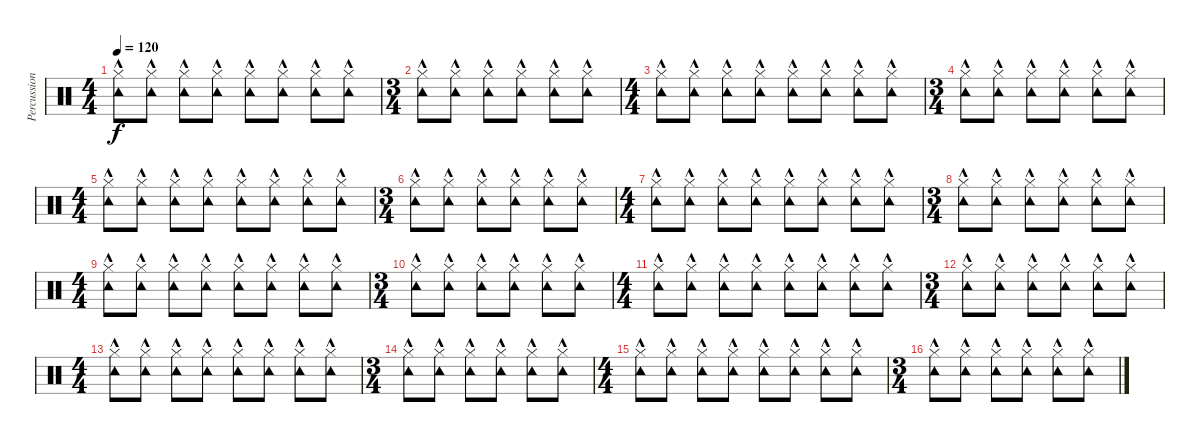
\track ("Percussion" "Percussion") {instrument percussion}
\staff {score}
\articulation defaults
\ts (4 4)
\tempo 120
\clef neutral
\ks c
("Tambourine (hit)"{hac} "Hi-Hat (closed)").8{dy f} ("Tambourine (hit)"{hac} "Hi-Hat (closed)").8 ("Tambourine (hit)"{hac} "Hi-Hat (closed)").8 ("Tambourine (hit)"{hac} "Hi-Hat (closed)").8 ("Tambourine (hit)"{hac} "Hi-Hat (closed)").8 ("Tambourine (hit)"{hac} "Hi-Hat (closed)").8 ("Tambourine (hit)"{hac} "Hi-Hat (closed)").8 ("Tambourine (hit)"{hac} "Hi-Hat (closed)").8 |
\ts (3 4)
("Tambourine (hit)"{hac} "Hi-Hat (closed)").8 ("Tambourine (hit)"{hac} "Hi-Hat (closed)").8 ("Tambourine (hit)"{hac} "Hi-Hat (closed)").8 ("Tambourine (hit)"{hac} "Hi-Hat (closed)").8 ("Tambourine (hit)"{hac} "Hi-Hat (closed)").8 ("Tambourine (hit)"{hac} "Hi-Hat (closed)").8 |
\ts (4 4)
("Tambourine (hit)"{hac} "Hi-Hat (closed)").8 ("Tambourine (hit)"{hac} "Hi-Hat (closed)").8 ("Tambourine (hit)"{hac} "Hi-Hat (closed)").8 ("Tambourine (hit)"{hac} "Hi-Hat (closed)").8 ("Tambourine (hit)"{hac} "Hi-Hat (closed)").8 ("Tambourine (hit)"{hac} "Hi-Hat (closed)").8 ("Tambourine (hit)"{hac} "Hi-Hat (closed)").8 ("Tambourine (hit)"{hac} "Hi-Hat (closed)").8 |
\ts (3 4)
("Tambourine (hit)"{hac} "Hi-Hat (closed)").8 ("Tambourine (hit)"{hac} "Hi-Hat (closed)").8 ("Tambourine (hit)"{hac} "Hi-Hat (closed)").8 ("Tambourine (hit)"{hac} "Hi-Hat (closed)").8 ("Tambourine (hit)"{hac} "Hi-Hat (closed)").8 ("Tambourine (hit)"{hac} "Hi-Hat (closed)").8 |
\ts (4 4)
("Tambourine (hit)"{hac} "Hi-Hat (closed)").8 ("Tambourine (hit)"{hac} "Hi-Hat (closed)").8 ("Tambourine (hit)"{hac} "Hi-Hat (closed)").8 ("Tambourine (hit)"{hac} "Hi-Hat (closed)").8 ("Tambourine (hit)"{hac} "Hi-Hat (closed)").8 ("Tambourine (hit)"{hac} "Hi-Hat (closed)").8 ("Tambourine (hit)"{hac} "Hi-Hat (closed)").8 ("Tambourine (hit)"{hac} "Hi-Hat (closed)").8 |
\ts (3 4)
("Tambourine (hit)"{hac} "Hi-Hat (closed)").8 ("Tambourine (hit)"{hac} "Hi-Hat (closed)").8 ("Tambourine (hit)"{hac} "Hi-Hat (closed)").8 ("Tambourine (hit)"{hac} "Hi-Hat (closed)").8 ("Tambourine (hit)"{hac} "Hi-Hat (closed)").8 ("Tambourine (hit)"{hac} "Hi-Hat (closed)").8 |
\ts (4 4)
("Tambourine (hit)"{hac} "Hi-Hat (closed)").8 ("Tambourine (hit)"{hac} "Hi-Hat (closed)").8 ("Tambourine (hit)"{hac} "Hi-Hat (closed)").8 ("Tambourine (hit)"{hac} "Hi-Hat (closed)").8 ("Tambourine (hit)"{hac} "Hi-Hat (closed)").8 ("Tambourine (hit)"{hac} "Hi-Hat (closed)").8 ("Tambourine (hit)"{hac} "Hi-Hat (closed)").8 ("Tambourine (hit)"{hac} "Hi-Hat (closed)").8 |
\ts (3 4)
("Tambourine (hit)"{hac} "Hi-Hat (closed)").8 ("Tambourine (hit)"{hac} "Hi-Hat (closed)").8 ("Tambourine (hit)"{hac} "Hi-Hat (closed)").8 ("Tambourine (hit)"{hac} "Hi-Hat (closed)").8 ("Tambourine (hit)"{hac} "Hi-Hat (closed)").8 ("Tambourine (hit)"{hac} "Hi-Hat (closed)").8 |
\ts (4 4)
("Tambourine (hit)"{hac} "Hi-Hat (closed)").8 ("Tambourine (hit)"{hac} "Hi-Hat (closed)").8 ("Tambourine (hit)"{hac} "Hi-Hat (closed)").8 ("Tambourine (hit)"{hac} "Hi-Hat (closed)").8 ("Tambourine (hit)"{hac} "Hi-Hat (closed)").8 ("Tambourine (hit)"{hac} "Hi-Hat (closed)").8 ("Tambourine (hit)"{hac} "Hi-Hat (closed)").8 ("Tambourine (hit)"{hac} "Hi-Hat (closed)").8 |
\ts (3 4)
("Tambourine (hit)"{hac} "Hi-Hat (closed)").8 ("Tambourine (hit)"{hac} "Hi-Hat (closed)").8 ("Tambourine (hit)"{hac} "Hi-Hat (closed)").8 ("Tambourine (hit)"{hac} "Hi-Hat (closed)").8 ("Tambourine (hit)"{hac} "Hi-Hat (closed)").8 ("Tambourine (hit)"{hac} "Hi-Hat (closed)").8 |
\ts (4 4)
("Tambourine (hit)"{hac} "Hi-Hat (closed)").8 ("Tambourine (hit)"{hac} "Hi-Hat (closed)").8 ("Tambourine (hit)"{hac} "Hi-Hat (closed)").8 ("Tambourine (hit)"{hac} "Hi-Hat (closed)").8 ("Tambourine (hit)"{hac} "Hi-Hat (closed)").8 ("Tambourine (hit)"{hac} "Hi-Hat (closed)").8 ("Tambourine (hit)"{hac} "Hi-Hat (closed)").8 ("Tambourine (hit)"{hac} "Hi-Hat (closed)").8 |
\ts (3 4)
("Tambourine (hit)"{hac} "Hi-Hat (closed)").8 ("Tambourine (hit)"{hac} "Hi-Hat (closed)").8 ("Tambourine (hit)"{hac} "Hi-Hat (closed)").8 ("Tambourine (hit)"{hac} "Hi-Hat (closed)").8 ("Tambourine (hit)"{hac} "Hi-Hat (closed)").8 ("Tambourine (hit)"{hac} "Hi-Hat (closed)").8 |
\ts (4 4)
("Tambourine (hit)"{hac} "Hi-Hat (closed)").8 ("Tambourine (hit)"{hac} "Hi-Hat (closed)").8 ("Tambourine (hit)"{hac} "Hi-Hat (closed)").8 ("Tambourine (hit)"{hac} "Hi-Hat (closed)").8 ("Tambourine (hit)"{hac} "Hi-Hat (closed)").8 ("Tambourine (hit)"{hac} "Hi-Hat (closed)").8 ("Tambourine (hit)"{hac} "Hi-Hat (closed)").8 ("Tambourine (hit)"{hac} "Hi-Hat (closed)").8 |
\ts (3 4)
("Tambourine (hit)"{hac} "Hi-Hat (closed)").8 ("Tambourine (hit)"{hac} "Hi-Hat (closed)").8 ("Tambourine (hit)"{hac} "Hi-Hat (closed)").8 ("Tambourine (hit)"{hac} "Hi-Hat (closed)").8 ("Tambourine (hit)"{hac} "Hi-Hat (closed)").8 ("Tambourine (hit)"{hac} "Hi-Hat (closed)").8 |
\ts (4 4)
("Tambourine (hit)"{hac} "Hi-Hat (closed)").8 ("Tambourine (hit)"{hac} "Hi-Hat (closed)").8 ("Tambourine (hit)"{hac} "Hi-Hat (closed)").8 ("Tambourine (hit)"{hac} "Hi-Hat (closed)").8 ("Tambourine (hit)"{hac} "Hi-Hat (closed)").8 ("Tambourine (hit)"{hac} "Hi-Hat (closed)").8 ("Tambourine (hit)"{hac} "Hi-Hat (closed)").8 ("Tambourine (hit)"{hac} "Hi-Hat (closed)").8 |
\ts (3 4)
("Tambourine (hit)"{hac} "Hi-Hat (closed)").8 ("Tambourine (hit)"{hac} "Hi-Hat (closed)").8 ("Tambourine (hit)"{hac} "Hi-Hat (closed)").8 ("Tambourine (hit)"{hac} "Hi-Hat (closed)").8 ("Tambourine (hit)"{hac} "Hi-Hat (closed)").8 ("Tambourine (hit)"{hac} "Hi-Hat (closed)").8
